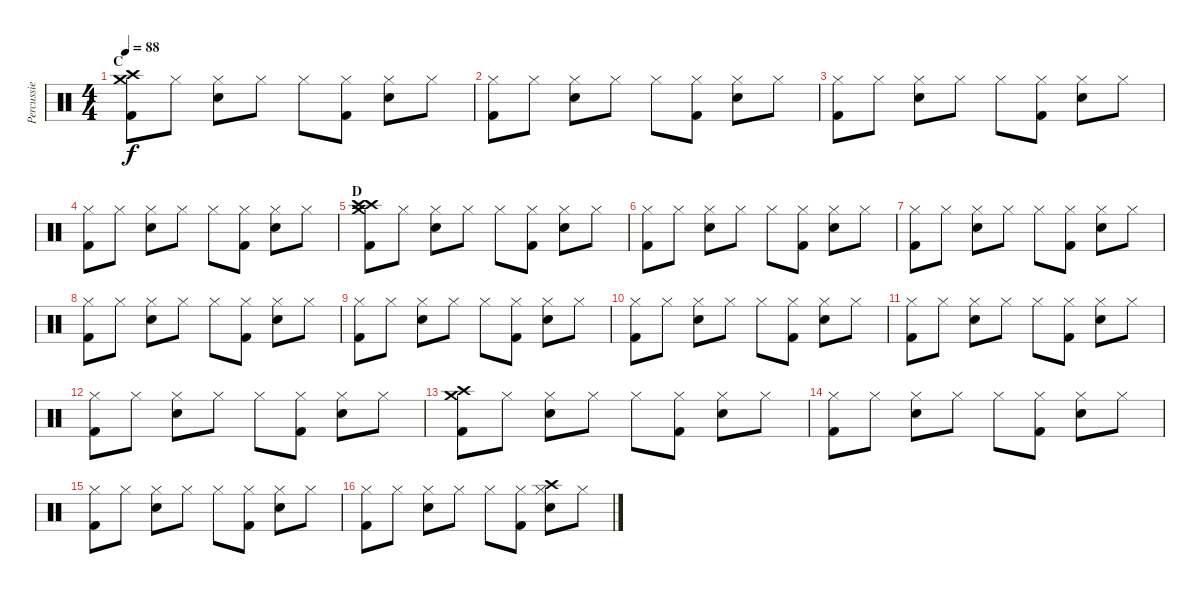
\track ("Percussie" "Percussie") {instrument percussion}
\staff {score}
\articulation defaults
\ts (4 4)
\section ("" "C")
\tempo 88
\clef neutral
\ks c
("Crash high (hit)" "Crash medium (hit)" "Kick (hit) 2").8{dy f} "Hi-Hat (closed)".8 ("Hi-Hat (closed)" "Snare (hit) 2").8 "Hi-Hat (closed)".8 "Hi-Hat (closed)".8 ("Hi-Hat (closed)" "Kick (hit) 2").8 ("Hi-Hat (closed)" "Snare (hit) 2").8 "Hi-Hat (closed)".8 |
("Hi-Hat (closed)" "Kick (hit) 2").8 "Hi-Hat (closed)".8 ("Hi-Hat (closed)" "Snare (hit) 2").8 "Hi-Hat (closed)".8 "Hi-Hat (closed)".8 ("Hi-Hat (closed)" "Kick (hit) 2").8 ("Hi-Hat (closed)" "Snare (hit) 2").8 "Hi-Hat (closed)".8 |
("Hi-Hat (closed)" "Kick (hit) 2").8 "Hi-Hat (closed)".8 ("Hi-Hat (closed)" "Snare (hit) 2").8 "Hi-Hat (closed)".8 "Hi-Hat (closed)".8 ("Hi-Hat (closed)" "Kick (hit) 2").8 ("Hi-Hat (closed)" "Snare (hit) 2").8 "Hi-Hat (closed)".8 |
("Hi-Hat (closed)" "Kick (hit) 2").8 "Hi-Hat (closed)".8 ("Hi-Hat (closed)" "Snare (hit) 2").8 "Hi-Hat (closed)".8 "Hi-Hat (closed)".8 ("Hi-Hat (closed)" "Kick (hit) 2").8 ("Hi-Hat (closed)" "Snare (hit) 2").8 "Hi-Hat (closed)".8 |
\section ("" "D")
("Crash high (hit)" "Crash medium (hit)" "Crash high (hit)" "Kick (hit) 2").8 "Hi-Hat (closed)".8 ("Hi-Hat (closed)" "Snare (hit) 2").8 "Hi-Hat (closed)".8 "Hi-Hat (closed)".8 ("Hi-Hat (closed)" "Kick (hit) 2").8 ("Hi-Hat (closed)" "Snare (hit) 2").8 "Hi-Hat (closed)".8 |
\section ("" "")
("Hi-Hat (closed)" "Kick (hit) 2").8 "Hi-Hat (closed)".8 ("Hi-Hat (closed)" "Snare (hit) 2").8 "Hi-Hat (closed)".8 "Hi-Hat (closed)".8 ("Hi-Hat (closed)" "Kick (hit) 2").8 ("Hi-Hat (closed)" "Snare (hit) 2").8 "Hi-Hat (closed)".8 |
("Hi-Hat (closed)" "Kick (hit) 2").8 "Hi-Hat (closed)".8 ("Hi-Hat (closed)" "Snare (hit) 2").8 "Hi-Hat (closed)".8 "Hi-Hat (closed)".8 ("Hi-Hat (closed)" "Kick (hit) 2").8 ("Hi-Hat (closed)" "Snare (hit) 2").8 "Hi-Hat (closed)".8 |
("Hi-Hat (closed)" "Kick (hit) 2").8 "Hi-Hat (closed)".8 ("Hi-Hat (closed)" "Snare (hit) 2").8 "Hi-Hat (closed)".8 "Hi-Hat (closed)".8 ("Hi-Hat (closed)" "Kick (hit) 2").8 ("Hi-Hat (closed)" "Snare (hit) 2").8 "Hi-Hat (closed)".8 |
("Hi-Hat (closed)" "Kick (hit) 2").8 "Hi-Hat (closed)".8 ("Hi-Hat (closed)" "Snare (hit) 2").8 "Hi-Hat (closed)".8 "Hi-Hat (closed)".8 ("Hi-Hat (closed)" "Kick (hit) 2").8 ("Hi-Hat (closed)" "Snare (hit) 2").8 "Hi-Hat (closed)".8 |
("Hi-Hat (closed)" "Kick (hit) 2").8 "Hi-Hat (closed)".8 ("Hi-Hat (closed)" "Snare (hit) 2").8 "Hi-Hat (closed)".8 "Hi-Hat (closed)".8 ("Hi-Hat (closed)" "Kick (hit) 2").8 ("Hi-Hat (closed)" "Snare (hit) 2").8 "Hi-Hat (closed)".8 |
("Hi-Hat (closed)" "Kick (hit) 2").8 "Hi-Hat (closed)".8 ("Hi-Hat (closed)" "Snare (hit) 2").8 "Hi-Hat (closed)".8 "Hi-Hat (closed)".8 ("Hi-Hat (closed)" "Kick (hit) 2").8 ("Hi-Hat (closed)" "Snare (hit) 2").8 "Hi-Hat (closed)".8 |
("Hi-Hat (closed)" "Kick (hit) 2").8 "Hi-Hat (closed)".8 ("Hi-Hat (closed)" "Snare (hit) 2").8 "Hi-Hat (closed)".8 "Hi-Hat (closed)".8 ("Hi-Hat (closed)" "Kick (hit) 2").8 ("Hi-Hat (closed)" "Snare (hit) 2").8 "Hi-Hat (closed)".8 |
("Crash high (hit)" "Crash medium (hit)" "Kick (hit) 2").8 "Hi-Hat (closed)".8 ("Hi-Hat (closed)" "Snare (hit) 2").8 "Hi-Hat (closed)".8 "Hi-Hat (closed)".8 ("Hi-Hat (closed)" "Kick (hit) 2").8 ("Hi-Hat (closed)" "Snare (hit) 2").8 "Hi-Hat (closed)".8 |
("Hi-Hat (closed)" "Kick (hit) 2").8 "Hi-Hat (closed)".8 ("Hi-Hat (closed)" "Snare (hit) 2").8 "Hi-Hat (closed)".8 "Hi-Hat (closed)".8 ("Hi-Hat (closed)" "Kick (hit) 2").8 ("Hi-Hat (closed)" "Snare (hit) 2").8 "Hi-Hat (closed)".8 |
("Hi-Hat (closed)" "Kick (hit) 2").8 "Hi-Hat (closed)".8 ("Hi-Hat (closed)" "Snare (hit) 2").8 "Hi-Hat (closed)".8 "Hi-Hat (closed)".8 ("Hi-Hat (closed)" "Kick (hit) 2").8 ("Hi-Hat (closed)" "Snare (hit) 2").8 "Hi-Hat (closed)".8 |
("Hi-Hat (closed)" "Kick (hit) 2").8 "Hi-Hat (closed)".8 ("Hi-Hat (closed)" "Snare (hit) 2").8 "Hi-Hat (closed)".8 "Hi-Hat (closed)".8 ("Hi-Hat (closed)" "Kick (hit) 2").8 ("Hi-Hat (closed)" "Crash high (hit)" "Snare (hit) 2").8 "Hi-Hat (closed)".8
